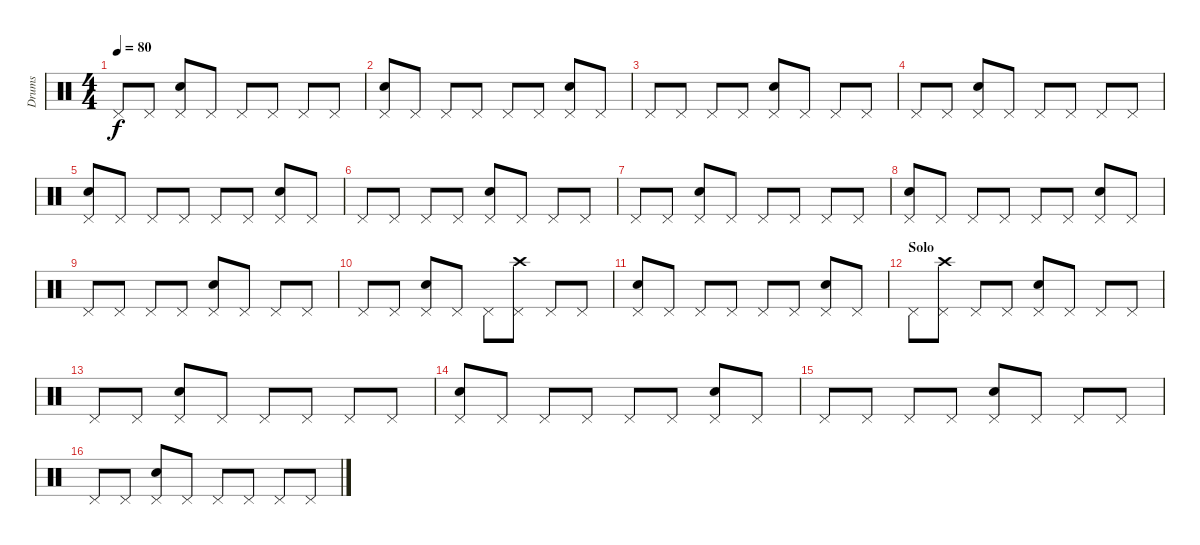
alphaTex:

\track ("Drums" "Drums") {instrument percussion}
\staff {score}
\articulation defaults
\ts (4 4)
\tempo 80
\clef neutral
\ks c "Pedal Hi-Hat (hit)".8{dy f} "Pedal Hi-Hat (hit)".8
("Electric Snare (hit)" "Pedal Hi-Hat (hit)").8 "Pedal Hi-Hat (hit)".8 "Pedal Hi-Hat (hit)".8 "Pedal Hi-Hat (hit)".8 "Pedal Hi-Hat (hit)".8 "Pedal Hi-Hat (hit)".8 |
("Electric Snare (hit)" "Pedal Hi-Hat (hit)").8 "Pedal Hi-Hat (hit)".8 "Pedal Hi-Hat (hit)".8 "Pedal Hi-Hat (hit)".8 "Pedal Hi-Hat (hit)".8 "Pedal Hi-Hat (hit)".8 ("Electric Snare (hit)" "Pedal Hi-Hat (hit)").8 "Pedal Hi-Hat (hit)".8 |
"Pedal Hi-Hat (hit)".8 "Pedal Hi-Hat (hit)".8 "Pedal Hi-Hat (hit)".8 "Pedal Hi-Hat (hit)".8 ("Electric Snare (hit)" "Pedal Hi-Hat (hit)").8 "Pedal Hi-Hat (hit)".8 "Pedal Hi-Hat (hit)".8 "Pedal Hi-Hat (hit)".8 |
"Pedal Hi-Hat (hit)".8 "Pedal Hi-Hat (hit)".8 ("Electric Snare (hit)" "Pedal Hi-Hat (hit)").8 "Pedal Hi-Hat (hit)".8 "Pedal Hi-Hat (hit)".8 "Pedal Hi-Hat (hit)".8 "Pedal Hi-Hat (hit)".8 "Pedal Hi-Hat (hit)".8 |
("Electric Snare (hit)" "Pedal Hi-Hat (hit)").8 "Pedal Hi-Hat (hit)".8 "Pedal Hi-Hat (hit)".8 "Pedal Hi-Hat (hit)".8 "Pedal Hi-Hat (hit)".8 "Pedal Hi-Hat (hit)".8 ("Electric Snare (hit)" "Pedal Hi-Hat (hit)").8 "Pedal Hi-Hat (hit)".8 |
"Pedal Hi-Hat (hit)".8 "Pedal Hi-Hat (hit)".8 "Pedal Hi-Hat (hit)".8 "Pedal Hi-Hat (hit)".8 ("Electric Snare (hit)" "Pedal Hi-Hat (hit)").8 "Pedal Hi-Hat (hit)".8 "Pedal Hi-Hat (hit)".8 "Pedal Hi-Hat (hit)".8 |
"Pedal Hi-Hat (hit)".8 "Pedal Hi-Hat (hit)".8 ("Electric Snare (hit)" "Pedal Hi-Hat (hit)").8 "Pedal Hi-Hat (hit)".8 "Pedal Hi-Hat (hit)".8 "Pedal Hi-Hat (hit)".8 "Pedal Hi-Hat (hit)".8 "Pedal Hi-Hat (hit)".8 |
("Electric Snare (hit)" "Pedal Hi-Hat (hit)").8 "Pedal Hi-Hat (hit)".8 "Pedal Hi-Hat (hit)".8 "Pedal Hi-Hat (hit)".8 "Pedal Hi-Hat (hit)".8 "Pedal Hi-Hat (hit)".8 ("Electric Snare (hit)" "Pedal Hi-Hat (hit)").8 "Pedal Hi-Hat (hit)".8 |
"Pedal Hi-Hat (hit)".8 "Pedal Hi-Hat (hit)".8 "Pedal Hi-Hat (hit)".8 "Pedal Hi-Hat (hit)".8 ("Electric Snare (hit)" "Pedal Hi-Hat (hit)").8 "Pedal Hi-Hat (hit)".8 "Pedal Hi-Hat (hit)".8 "Pedal Hi-Hat (hit)".8 |
"Pedal Hi-Hat (hit)".8 "Pedal Hi-Hat (hit)".8 ("Electric Snare (hit)" "Pedal Hi-Hat (hit)").8 "Pedal Hi-Hat (hit)".8 "Pedal Hi-Hat (hit)".8 ("Crash high (hit)" "Pedal Hi-Hat (hit)").8 "Pedal Hi-Hat (hit)".8 "Pedal Hi-Hat (hit)".8 |
("Electric Snare (hit)" "Pedal Hi-Hat (hit)").8 "Pedal Hi-Hat (hit)".8 "Pedal Hi-Hat (hit)".8 "Pedal Hi-Hat (hit)".8 "Pedal Hi-Hat (hit)".8 "Pedal Hi-Hat (hit)".8 ("Electric Snare (hit)" "Pedal Hi-Hat (hit)").8 "Pedal Hi-Hat (hit)".8 |
\section ("" "Solo")
"Pedal Hi-Hat (hit)".8 ("Crash high (hit)" "Pedal Hi-Hat (hit)").8 "Pedal Hi-Hat (hit)".8 "Pedal Hi-Hat (hit)".8 ("Electric Snare (hit)" "Pedal Hi-Hat (hit)").8 "Pedal Hi-Hat (hit)".8 "Pedal Hi-Hat (hit)".8 "Pedal Hi-Hat (hit)".8 |
"Pedal Hi-Hat (hit)".8 "Pedal Hi-Hat (hit)".8 ("Electric Snare (hit)" "Pedal Hi-Hat (hit)").8 "Pedal Hi-Hat (hit)".8 "Pedal Hi-Hat (hit)".8 "Pedal Hi-Hat (hit)".8 "Pedal Hi-Hat (hit)".8 "Pedal Hi-Hat (hit)".8 |
("Electric Snare (hit)" "Pedal Hi-Hat (hit)").8 "Pedal Hi-Hat (hit)".8 "Pedal Hi-Hat (hit)".8 "Pedal Hi-Hat (hit)".8 "Pedal Hi-Hat (hit)".8 "Pedal Hi-Hat (hit)".8 ("Electric Snare (hit)" "Pedal Hi-Hat (hit)").8 "Pedal Hi-Hat (hit)".8 |
"Pedal Hi-Hat (hit)".8 "Pedal Hi-Hat (hit)".8 "Pedal Hi-Hat (hit)".8 "Pedal Hi-Hat (hit)".8 ("Electric Snare (hit)" "Pedal Hi-Hat (hit)").8 "Pedal Hi-Hat (hit)".8 "Pedal Hi-Hat (hit)".8 "Pedal Hi-Hat (hit)".8 |
"Pedal Hi-Hat (hit)".8 "Pedal Hi-Hat (hit)".8 ("Electric Snare (hit)" "Pedal Hi-Hat (hit)").8 "Pedal Hi-Hat (hit)".8 "Pedal Hi-Hat (hit)".8 "Pedal Hi-Hat (hit)".8 "Pedal Hi-Hat (hit)".8 "Pedal Hi-Hat (hit)".8
